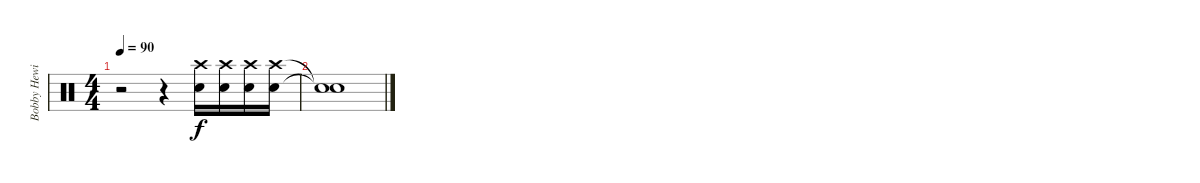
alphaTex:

\track ("Bobby Hewitt (Drums)" "Bobby Hewi") {instrument percussion}
\staff {score}
\articulation defaults
\ts (4 4)
\tempo 90
\clef neutral
\ks c
r.2{dy f} r.4 ("Crash high (hit)" "Electric Snare (hit)").16 ("Crash high (hit)" "Electric Snare (hit)").16 ("Crash high (hit)" "Electric Snare (hit)").16 ("Crash high (hit)" "Electric Snare (hit)").16 |
("Snare (hit)"{t} "Snare (hit)"{t}).1
